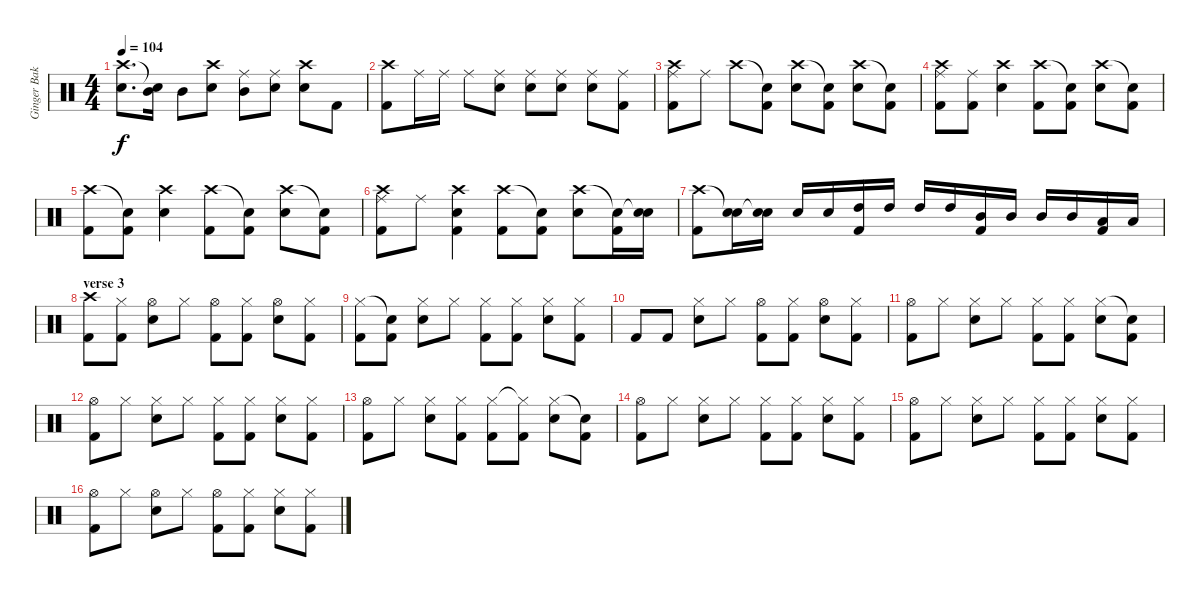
\track ("Ginger Baker" "Ginger Bak") {instrument percussion}
\staff {score}
\articulation defaults
\ts (4 4)
\tempo 104
\clef neutral
\ks c
("Crash high (hit)" "Snare (hit) 2").8{d dy f} ("Snare (hit)"{t} "Mid Tom (hit)").16 "Mid Tom (hit)".8 ("Crash high (hit)" "Snare (hit) 2").8 ("Ride (middle)" "Mid Tom (hit)").8 ("Ride (middle)" "Snare (hit) 2").8 ("Crash high (hit)" "Snare (hit) 2").8 "Kick (hit) 2".8 |
("Crash high (hit)" "Kick (hit) 2").8 "Ride (middle)".16 "Ride (middle)".16 "Ride (middle)".8 ("Ride (middle)" "Snare (hit) 2").8 ("Ride (middle)" "Snare (hit) 2").8 ("Ride (middle)" "Snare (hit) 2").8 ("Ride (middle)" "Snare (hit) 2").8 ("Ride (middle)" "Kick (hit) 2").8 |
("Crash high (hit)" "Ride (middle)" "Kick (hit) 2").8 "Ride (middle)".8 "Crash high (hit)".8 ("Snare (hit)"{t} "Kick (hit) 2").8 ("Crash high (hit)" "Snare (hit) 2").8 ("Snare (hit)"{t} "Kick (hit) 2").8 ("Crash high (hit)" "Snare (hit) 2").8 ("Snare (hit)"{t} "Kick (hit) 2").8 |
("Crash high (hit)" "Ride (middle)" "Kick (hit) 2").8 ("Ride (middle)" "Kick (hit) 2").8 ("Crash high (hit)" "Snare (hit) 2").4 ("Crash high (hit)" "Kick (hit) 2").8 ("Snare (hit)"{t} "Kick (hit) 2").8 ("Crash high (hit)" "Snare (hit) 2").8 ("Snare (hit)"{t} "Kick (hit) 2").8 |
("Crash high (hit)" "Kick (hit) 2").8 ("Snare (hit)"{t} "Kick (hit) 2").8 ("Crash high (hit)" "Snare (hit) 2").4 ("Crash high (hit)" "Kick (hit) 2").8 ("Snare (hit)"{t} "Kick (hit) 2").8 ("Crash high (hit)" "Snare (hit) 2").8 ("Snare (hit)"{t} "Kick (hit) 2").8 |
("Crash high (hit)" "Ride (middle)" "Kick (hit) 2").8 "Ride (middle)".8 ("Crash high (hit)" "Snare (hit) 2" "Kick (hit) 2").4 ("Crash high (hit)" "Kick (hit) 2").8 ("Snare (hit)"{t} "Kick (hit) 2").8 ("Crash high (hit)" "Snare (hit) 2").8 ("Snare (hit)"{t} "Kick (hit) 2").16 ("Snare (hit)"{t} "Snare (hit) 2").16 |
("Crash high (hit)" "Kick (hit) 2").8 ("Snare (hit)"{t} "Snare (hit) 2").16 ("Snare (hit)"{t} "Snare (hit) 2").16 "Snare (hit) 2".16 "Snare (hit) 2".16 ("High Tom (hit)" "Kick (hit) 2").16 "High Tom (hit)".16 "High Tom (hit)".16 "High Tom (hit)".16 ("Mid Tom (hit)" "Kick (hit) 2").16 "Mid Tom (hit)".16 "Mid Tom (hit)".16 "Mid Tom (hit)".16 ("Low Tom (hit)" "Kick (hit) 2").16 "Low Tom (hit)".16 |
\section ("" "verse 3")
("Crash high (hit)" "Kick (hit) 2").8 ("Hi-Hat (closed)" "Kick (hit) 2").8 ("Hi-Hat (open)" "Snare (hit) 2").8 "Hi-Hat (closed)".8 ("Hi-Hat (open)" "Kick (hit) 2").8 ("Hi-Hat (closed)" "Kick (hit) 2").8 ("Hi-Hat (open)" "Snare (hit) 2").8 ("Hi-Hat (closed)" "Kick (hit) 2").8 |
("Hi-Hat (closed)" "Kick (hit) 2").8 ("Snare (hit)"{t} "Kick (hit) 2").8 ("Hi-Hat (closed)" "Snare (hit) 2").8 "Hi-Hat (closed)".8 ("Hi-Hat (closed)" "Kick (hit) 2").8 ("Hi-Hat (closed)" "Kick (hit) 2").8 ("Hi-Hat (closed)" "Snare (hit) 2").8 ("Hi-Hat (closed)" "Kick (hit) 2").8 |
"Kick (hit) 2".8 "Kick (hit) 2".8 ("Hi-Hat (closed)" "Snare (hit) 2").8 "Hi-Hat (closed)".8 ("Hi-Hat (open)" "Kick (hit) 2").8 ("Hi-Hat (closed)" "Kick (hit) 2").8 ("Hi-Hat (open)" "Snare (hit) 2").8 ("Hi-Hat (closed)" "Kick (hit) 2").8 |
("Hi-Hat (open)" "Kick (hit) 2").8 "Hi-Hat (closed)".8 ("Hi-Hat (closed)" "Snare (hit) 2").8 "Hi-Hat (closed)".8 ("Hi-Hat (closed)" "Kick (hit) 2").8 ("Hi-Hat (closed)" "Kick (hit) 2").8 ("Hi-Hat (closed)" "Snare (hit) 2").8 ("Snare (hit)"{t} "Kick (hit) 2").8 |
("Hi-Hat (open)" "Kick (hit) 2").8 "Hi-Hat (closed)".8 ("Hi-Hat (closed)" "Snare (hit) 2").8 "Hi-Hat (closed)".8 ("Hi-Hat (closed)" "Kick (hit) 2").8 ("Hi-Hat (closed)" "Kick (hit) 2").8 ("Hi-Hat (closed)" "Snare (hit) 2").8 ("Hi-Hat (closed)" "Kick (hit) 2").8 |
("Hi-Hat (open)" "Kick (hit) 2").8 "Hi-Hat (closed)".8 ("Hi-Hat (closed)" "Snare (hit) 2").8 ("Hi-Hat (closed)" "Kick (hit) 2").8 ("Hi-Hat (closed)" "Kick (hit) 2").8 ("Hi-Hat (closed)"{t} "Kick (hit) 2").8 ("Hi-Hat (closed)" "Snare (hit) 2").8 ("Snare (hit)"{t} "Kick (hit) 2").8 |
("Hi-Hat (open)" "Kick (hit) 2").8 "Hi-Hat (closed)".8 ("Hi-Hat (closed)" "Snare (hit) 2").8 "Hi-Hat (closed)".8 ("Hi-Hat (closed)" "Kick (hit) 2").8 ("Hi-Hat (closed)" "Kick (hit) 2").8 ("Hi-Hat (closed)" "Snare (hit) 2").8 ("Hi-Hat (closed)" "Kick (hit) 2").8 |
("Hi-Hat (open)" "Kick (hit) 2").8 "Hi-Hat (closed)".8 ("Hi-Hat (closed)" "Snare (hit) 2").8 "Hi-Hat (closed)".8 ("Hi-Hat (closed)" "Kick (hit) 2").8 ("Hi-Hat (closed)" "Kick (hit) 2").8 ("Hi-Hat (closed)" "Snare (hit) 2").8 ("Hi-Hat (closed)" "Kick (hit) 2").8 |
("Hi-Hat (open)" "Kick (hit) 2").8 "Hi-Hat (closed)".8 ("Hi-Hat (open)" "Snare (hit) 2").8 "Hi-Hat (closed)".8 ("Hi-Hat (open)" "Kick (hit) 2").8 ("Hi-Hat (closed)" "Kick (hit) 2").8 ("Hi-Hat (closed)" "Snare (hit) 2").8 ("Hi-Hat (closed)" "Kick (hit) 2").8
